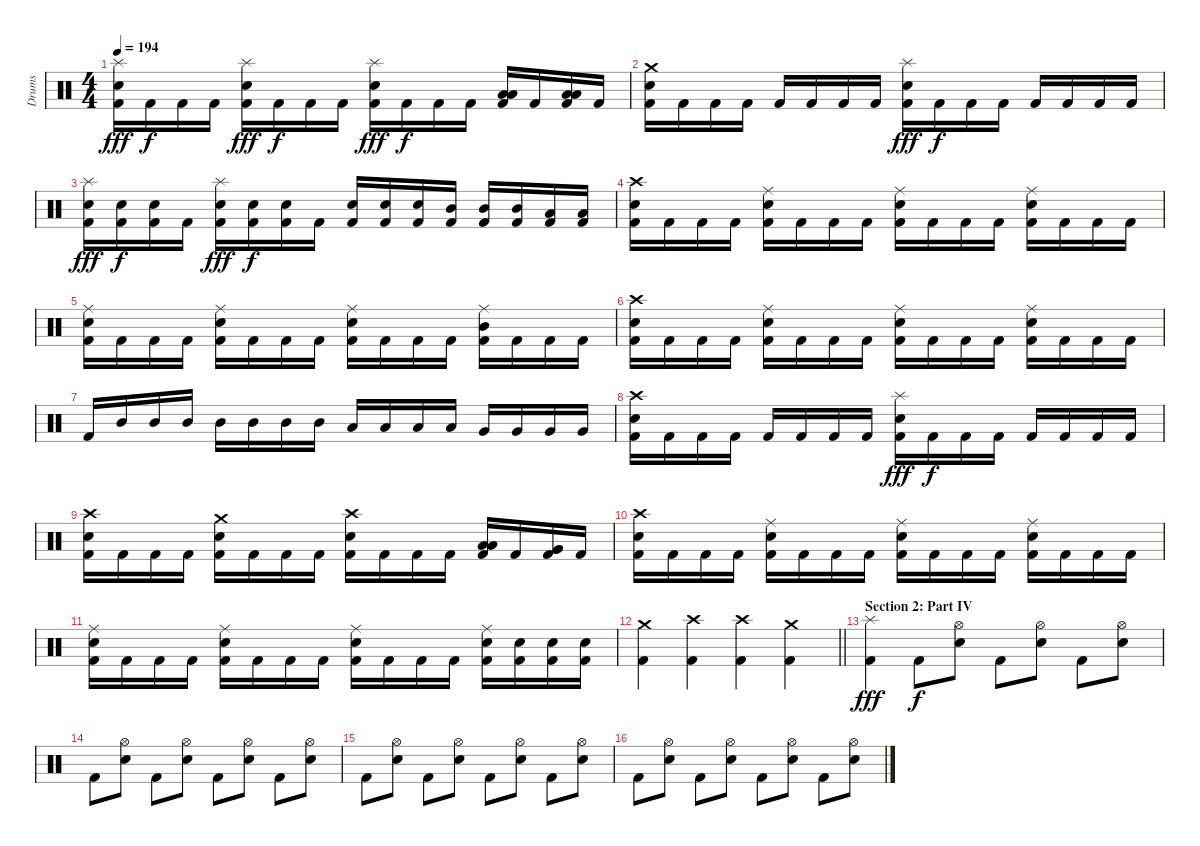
\track ("Drums" "Drums") {instrument percussion}
\staff {score}
\articulation defaults
\ts (4 4)
\tempo 194
\clef neutral
\ks c
("Splash (hit)" "Electric Snare (hit)" "Kick (hit) 2").16{dy fff} "Kick (hit) 2".16{dy f} "Kick (hit) 2".16 "Kick (hit) 2".16 ("Splash (hit)" "Electric Snare (hit)" "Kick (hit) 2").16{dy fff} "Kick (hit) 2".16{dy f} "Kick (hit) 2".16 "Kick (hit) 2".16 ("Splash (hit)" "Electric Snare (hit)" "Kick (hit) 2").16{dy fff} "Kick (hit) 2".16{dy f} "Kick (hit) 2".16 "Kick (hit) 2".16 ("Low Tom (hit)" "Low Tom (hit)" "Kick (hit) 2").16 "Kick (hit) 2".16 ("Low Tom (hit)" "Low Tom (hit)" "Kick (hit) 2").16 "Kick (hit) 2".16 |
("Crash medium (hit)" "Electric Snare (hit)" "Kick (hit) 2").16 "Kick (hit) 2".16 "Kick (hit) 2".16 "Kick (hit) 2".16 "Kick (hit) 2".16 "Kick (hit) 2".16 "Kick (hit) 2".16 "Kick (hit) 2".16 ("Splash (hit)" "Electric Snare (hit)" "Kick (hit) 2").16{dy fff} "Kick (hit) 2".16{dy f} "Kick (hit) 2".16 "Kick (hit) 2".16 "Kick (hit) 2".16 "Kick (hit) 2".16 "Kick (hit) 2".16 "Kick (hit) 2".16 |
("Splash (hit)" "Electric Snare (hit)" "Kick (hit) 2").16{dy fff} ("Electric Snare (hit)" "Kick (hit) 2").16{dy f} ("Electric Snare (hit)" "Kick (hit) 2").16 "Kick (hit) 2".16 ("Splash (hit)" "Electric Snare (hit)" "Kick (hit) 2").16{dy fff} ("Electric Snare (hit)" "Kick (hit) 2").16{dy f} ("Electric Snare (hit)" "Kick (hit) 2").16 "Kick (hit) 2".16 ("Electric Snare (hit)" "Kick (hit) 2").16 ("Electric Snare (hit)" "Kick (hit) 2").16 ("Electric Snare (hit)" "Kick (hit) 2").16 ("Mid Tom (hit)" "Kick (hit) 2").16 ("Mid Tom (hit)" "Kick (hit) 2").16 ("Mid Tom (hit)" "Kick (hit) 2").16 ("Low Tom (hit)" "Kick (hit) 2").16 ("Low Tom (hit)" "Kick (hit) 2").16 |
("Crash high (hit)" "Electric Snare (hit)" "Kick (hit) 2").16 "Kick (hit) 2".16 "Kick (hit) 2".16 "Kick (hit) 2".16 ("Ride (middle)" "Electric Snare (hit)" "Kick (hit) 2").16 "Kick (hit) 2".16 "Kick (hit) 2".16 "Kick (hit) 2".16 ("Ride (middle)" "Electric Snare (hit)" "Kick (hit) 2").16 "Kick (hit) 2".16 "Kick (hit) 2".16 "Kick (hit) 2".16 ("Ride (middle)" "Electric Snare (hit)" "Kick (hit) 2").16 "Kick (hit) 2".16 "Kick (hit) 2".16 "Kick (hit) 2".16 |
("Ride (middle)" "Electric Snare (hit)" "Kick (hit) 2").16 "Kick (hit) 2".16 "Kick (hit) 2".16 "Kick (hit) 2".16 ("Ride (middle)" "Electric Snare (hit)" "Kick (hit) 2").16 "Kick (hit) 2".16 "Kick (hit) 2".16 "Kick (hit) 2".16 ("Ride (middle)" "Electric Snare (hit)" "Kick (hit) 2").16 "Kick (hit) 2".16 "Kick (hit) 2".16 "Kick (hit) 2".16 ("Ride (middle)" "Mid Tom (hit)" "Kick (hit) 2").16 "Kick (hit) 2".16 "Kick (hit) 2".16 "Kick (hit) 2".16 |
("Crash high (hit)" "Electric Snare (hit)" "Kick (hit) 2").16 "Kick (hit) 2".16 "Kick (hit) 2".16 "Kick (hit) 2".16 ("Ride (middle)" "Electric Snare (hit)" "Kick (hit) 2").16 "Kick (hit) 2".16 "Kick (hit) 2".16 "Kick (hit) 2".16 ("Ride (middle)" "Electric Snare (hit)" "Kick (hit) 2").16 "Kick (hit) 2".16 "Kick (hit) 2".16 "Kick (hit) 2".16 ("Ride (middle)" "Electric Snare (hit)" "Kick (hit) 2").16 "Kick (hit) 2".16 "Kick (hit) 2".16 "Kick (hit) 2".16 |
"Kick (hit) 2".16 "Mid Tom (hit)".16 "Mid Tom (hit)".16 "Mid Tom (hit)".16 "Mid Tom (hit)".16 "Mid Tom (hit)".16 "Mid Tom (hit)".16 "Mid Tom (hit)".16 "Low Tom (hit)".16 "Low Tom (hit)".16 "Low Tom (hit)".16 "Low Tom (hit)".16 "Very Low Tom (hit)".16 "Very Low Tom (hit)".16 "Very Low Tom (hit)".16 "Very Low Tom (hit)".16 |
("Crash high (hit)" "Electric Snare (hit)" "Kick (hit) 2").16 "Kick (hit) 2".16 "Kick (hit) 2".16 "Kick (hit) 2".16 "Kick (hit) 2".16 "Kick (hit) 2".16 "Kick (hit) 2".16 "Kick (hit) 2".16 ("Splash (hit)" "Electric Snare (hit)" "Kick (hit) 2").16{dy fff} "Kick (hit) 2".16{dy f} "Kick (hit) 2".16 "Kick (hit) 2".16 "Kick (hit) 2".16 "Kick (hit) 2".16 "Kick (hit) 2".16 "Kick (hit) 2".16 |
("Crash high (hit)" "Electric Snare (hit)" "Kick (hit) 2").16 "Kick (hit) 2".16 "Kick (hit) 2".16 "Kick (hit) 2".16 ("Crash medium (hit)" "Electric Snare (hit)" "Kick (hit) 2").16 "Kick (hit) 2".16 "Kick (hit) 2".16 "Kick (hit) 2".16 ("Crash high (hit)" "Electric Snare (hit)" "Kick (hit) 2").16 "Kick (hit) 2".16 "Kick (hit) 2".16 "Kick (hit) 2".16 ("Low Tom (hit)" "Low Tom (hit)" "Kick (hit) 2").16 "Kick (hit) 2".16 ("Very Low Tom (hit)" "Very Low Tom (hit)" "Kick (hit) 2").16 "Kick (hit) 2".16 |
("Crash high (hit)" "Electric Snare (hit)" "Kick (hit) 2").16 "Kick (hit) 2".16 "Kick (hit) 2".16 "Kick (hit) 2".16 ("Ride (middle)" "Electric Snare (hit)" "Kick (hit) 2").16 "Kick (hit) 2".16 "Kick (hit) 2".16 "Kick (hit) 2".16 ("Ride (middle)" "Electric Snare (hit)" "Kick (hit) 2").16 "Kick (hit) 2".16 "Kick (hit) 2".16 "Kick (hit) 2".16 ("Ride (middle)" "Electric Snare (hit)" "Kick (hit) 2").16 "Kick (hit) 2".16 "Kick (hit) 2".16 "Kick (hit) 2".16 |
("Ride (middle)" "Electric Snare (hit)" "Kick (hit) 2").16 "Kick (hit) 2".16 "Kick (hit) 2".16 "Kick (hit) 2".16 ("Ride (middle)" "Electric Snare (hit)" "Kick (hit) 2").16 "Kick (hit) 2".16 "Kick (hit) 2".16 "Kick (hit) 2".16 ("Ride (middle)" "Electric Snare (hit)" "Kick (hit) 2").16 "Kick (hit) 2".16 "Kick (hit) 2".16 "Kick (hit) 2".16 ("Ride (middle)" "Electric Snare (hit)" "Kick (hit) 2").16 ("Electric Snare (hit)" "Kick (hit) 2").16 ("Electric Snare (hit)" "Kick (hit) 2").16 ("Electric Snare (hit)" "Kick (hit) 2").16 |
\barLineRight lightlight
("Crash medium (hit)" "Kick (hit) 2").4 ("Crash high (hit)" "Kick (hit) 2").4 ("Crash high (hit)" "Kick (hit) 2").4 ("Crash medium (hit)" "Kick (hit) 2").4 |
\section ("" "Section 2: Part IV")
("Splash (hit)" "Kick (hit) 2").4{dy fff} "Kick (hit) 2".8{dy f} ("Hi-Hat (open)" "Electric Snare (hit)").8 "Kick (hit) 2".8 ("Hi-Hat (open)" "Electric Snare (hit)").8 "Kick (hit) 2".8 ("Hi-Hat (open)" "Electric Snare (hit)").8 |
"Kick (hit) 2".8 ("Hi-Hat (open)" "Electric Snare (hit)").8 "Kick (hit) 2".8 ("Hi-Hat (open)" "Electric Snare (hit)").8 "Kick (hit) 2".8 ("Hi-Hat (open)" "Electric Snare (hit)").8 "Kick (hit) 2".8 ("Hi-Hat (open)" "Electric Snare (hit)").8 |
"Kick (hit) 2".8 ("Hi-Hat (open)" "Electric Snare (hit)").8 "Kick (hit) 2".8 ("Hi-Hat (open)" "Electric Snare (hit)").8 "Kick (hit) 2".8 ("Hi-Hat (open)" "Electric Snare (hit)").8 "Kick (hit) 2".8 ("Hi-Hat (open)" "Electric Snare (hit)").8 |
"Kick (hit) 2".8 ("Hi-Hat (open)" "Electric Snare (hit)").8 "Kick (hit) 2".8 ("Hi-Hat (open)" "Electric Snare (hit)").8 "Kick (hit) 2".8 ("Hi-Hat (open)" "Electric Snare (hit)").8 "Kick (hit) 2".8 ("Hi-Hat (open)" "Electric Snare (hit)").8
